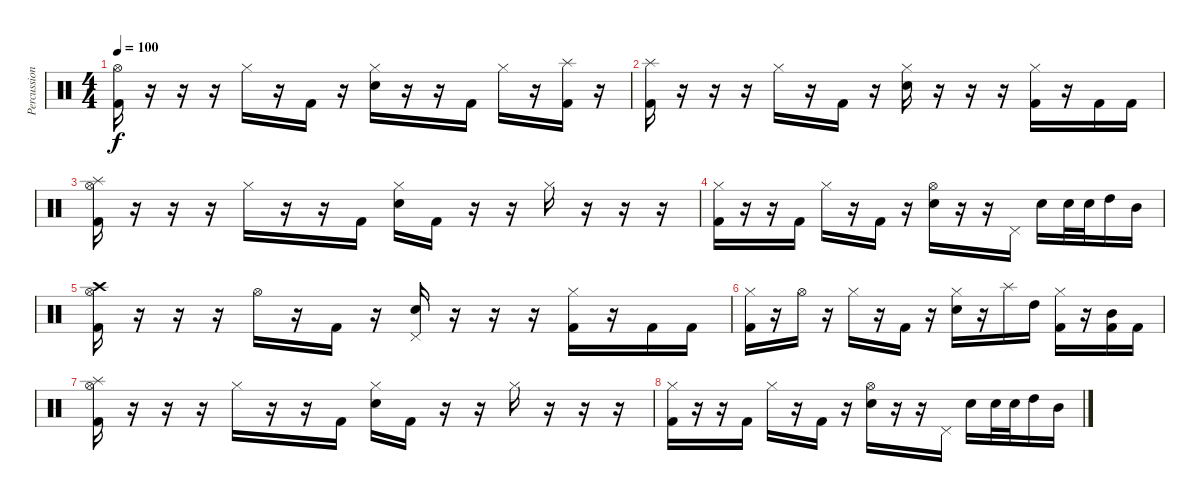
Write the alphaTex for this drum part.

\track ("Percussion" "Percussion") {instrument percussion}
\staff {score}
\articulation defaults
\ts (4 4)
\tempo 100
\clef neutral
\ks c
("Hi-Hat (open)" "Kick (hit) 2").16{dy f} r.16 r.16 r.16 "Hi-Hat (closed)".16 r.16 "Kick (hit) 2".16 r.16 ("Hi-Hat (closed)" "Electric Snare (hit)").16 r.16 r.16 "Kick (hit) 2".16 "Hi-Hat (closed)".16 r.16 ("Splash (hit)" "Kick (hit) 2").16 r.16 |
("Splash (hit)" "Kick (hit) 2").16 r.16 r.16 r.16 "Hi-Hat (closed)".16 r.16 "Kick (hit) 2".16 r.16 ("Hi-Hat (closed)" "Electric Snare (hit)").16 r.16 r.16 r.16 ("Hi-Hat (closed)" "Kick (hit) 2").16 r.16 "Kick (hit) 2".16 "Kick (hit) 2".16 |
("Hi-Hat (open)" "Splash (hit)" "Kick (hit) 2").16 r.16 r.16 r.16 "Hi-Hat (closed)".16 r.16 r.16 "Kick (hit) 2".16 ("Hi-Hat (closed)" "Electric Snare (hit)").16 "Kick (hit) 2".16 r.16 r.16 "Hi-Hat (closed)".16 r.16 r.16 r.16 |
("Hi-Hat (closed)" "Kick (hit) 2").16 r.16 r.16 "Kick (hit) 2".16 "Hi-Hat (closed)".16 r.16 "Kick (hit) 2".16 r.16 ("Hi-Hat (open)" "Electric Snare (hit)").16 r.16 r.16 "Pedal Hi-Hat (hit)".16 "Electric Snare (hit)".16 "Electric Snare (hit)".32 "Electric Snare (hit)".32 "High Tom (hit)".16 "Mid Tom (hit)".16 |
("Crash high (hit)" "Hi-Hat (open)" "Kick (hit) 2").16 r.16 r.16 r.16 "Hi-Hat (open)".16 r.16 "Kick (hit) 2".16 r.16 ("Pedal Hi-Hat (hit)" "Electric Snare (hit)").16 r.16 r.16 r.16 ("Hi-Hat (closed)" "Kick (hit) 2").16 r.16 "Kick (hit) 2".16 "Kick (hit) 2".16 |
("Hi-Hat (closed)" "Kick (hit) 2").16 r.16 "Hi-Hat (open)".16 r.16 "Hi-Hat (closed)".16 r.16 "Kick (hit) 2".16 r.16 ("Hi-Hat (closed)" "Electric Snare (hit)").16 r.16 "Splash (hit)".16 "High Tom (hit)".16 ("Hi-Hat (closed)" "Kick (hit) 2").16 r.16 ("Mid Tom (hit)" "Kick (hit) 2").16 "Kick (hit) 2".16 |
("Hi-Hat (open)" "Splash (hit)" "Kick (hit) 2").16 r.16 r.16 r.16 "Hi-Hat (closed)".16 r.16 r.16 "Kick (hit) 2".16 ("Hi-Hat (closed)" "Electric Snare (hit)").16 "Kick (hit) 2".16 r.16 r.16 "Hi-Hat (closed)".16 r.16 r.16 r.16 |
("Hi-Hat (closed)" "Kick (hit) 2").16 r.16 r.16 "Kick (hit) 2".16 "Hi-Hat (closed)".16 r.16 "Kick (hit) 2".16 r.16 ("Hi-Hat (open)" "Electric Snare (hit)").16 r.16 r.16 "Pedal Hi-Hat (hit)".16 "Electric Snare (hit)".16 "Electric Snare (hit)".32 "Electric Snare (hit)".32 "High Tom (hit)".16 "Mid Tom (hit)".16
